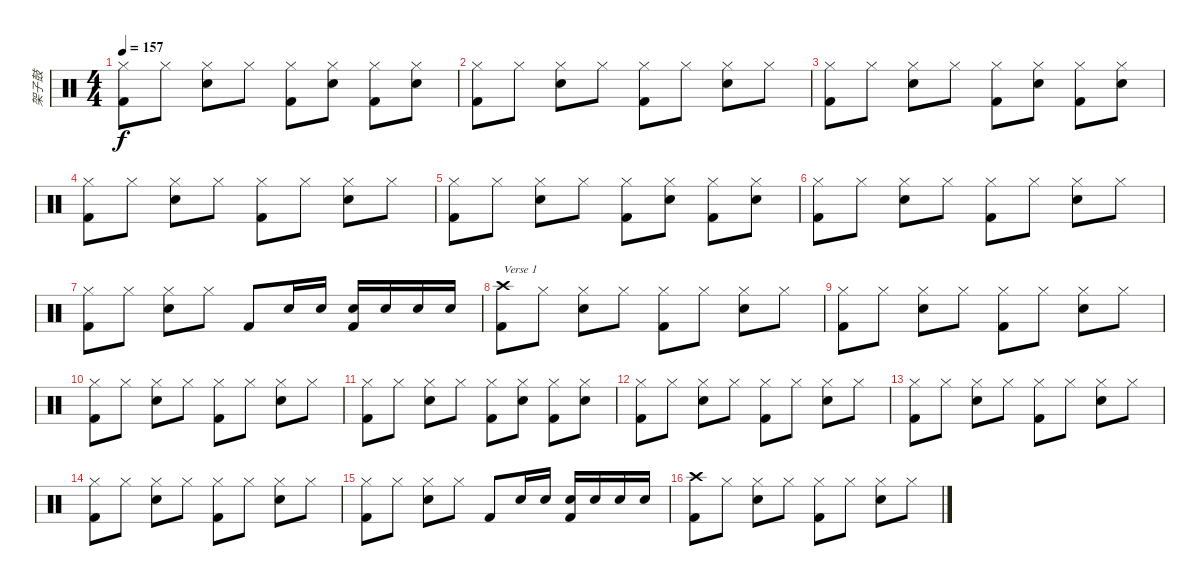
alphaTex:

\track ("架子鼓" "架子鼓") {instrument percussion}
\staff {score}
\articulation defaults
\ts (4 4)
\tempo 157
\clef neutral
\ks c
("Hi-Hat (closed)" "Kick (hit) 2").8{dy f} "Hi-Hat (closed)".8 ("Hi-Hat (closed)" "Snare (hit) 2").8 "Hi-Hat (closed)".8 ("Hi-Hat (closed)" "Kick (hit) 2").8 ("Hi-Hat (closed)" "Snare (hit) 2").8 ("Hi-Hat (closed)" "Kick (hit) 2").8 ("Hi-Hat (closed)" "Snare (hit) 2").8 |
("Hi-Hat (closed)" "Kick (hit) 2").8 "Hi-Hat (closed)".8 ("Hi-Hat (closed)" "Snare (hit) 2").8 "Hi-Hat (closed)".8 ("Hi-Hat (closed)" "Kick (hit) 2").8 "Hi-Hat (closed)".8 ("Hi-Hat (closed)" "Snare (hit) 2").8 "Hi-Hat (closed)".8 |
("Hi-Hat (closed)" "Kick (hit) 2").8 "Hi-Hat (closed)".8 ("Hi-Hat (closed)" "Snare (hit) 2").8 "Hi-Hat (closed)".8 ("Hi-Hat (closed)" "Kick (hit) 2").8 ("Hi-Hat (closed)" "Snare (hit) 2").8 ("Hi-Hat (closed)" "Kick (hit) 2").8 ("Hi-Hat (closed)" "Snare (hit) 2").8 |
("Hi-Hat (closed)" "Kick (hit) 2").8 "Hi-Hat (closed)".8 ("Hi-Hat (closed)" "Snare (hit) 2").8 "Hi-Hat (closed)".8 ("Hi-Hat (closed)" "Kick (hit) 2").8 "Hi-Hat (closed)".8 ("Hi-Hat (closed)" "Snare (hit) 2").8 "Hi-Hat (closed)".8 |
("Hi-Hat (closed)" "Kick (hit) 2").8 "Hi-Hat (closed)".8 ("Hi-Hat (closed)" "Snare (hit) 2").8 "Hi-Hat (closed)".8 ("Hi-Hat (closed)" "Kick (hit) 2").8 ("Hi-Hat (closed)" "Snare (hit) 2").8 ("Hi-Hat (closed)" "Kick (hit) 2").8 ("Hi-Hat (closed)" "Snare (hit) 2").8 |
("Hi-Hat (closed)" "Kick (hit) 2").8 "Hi-Hat (closed)".8 ("Hi-Hat (closed)" "Snare (hit) 2").8 "Hi-Hat (closed)".8 ("Hi-Hat (closed)" "Kick (hit) 2").8 "Hi-Hat (closed)".8 ("Hi-Hat (closed)" "Snare (hit) 2").8 "Hi-Hat (closed)".8 |
("Hi-Hat (closed)" "Kick (hit) 2").8 "Hi-Hat (closed)".8 ("Hi-Hat (closed)" "Snare (hit) 2").8 "Hi-Hat (closed)".8 "Kick (hit) 2".8 "Snare (hit) 2".16 "Snare (hit) 2".16 ("Snare (hit) 2" "Kick (hit) 2").16 "Snare (hit) 2".16 "Snare (hit) 2".16 "Snare (hit) 2".16 |
("Crash high (hit)" "Kick (hit) 2").8{txt "Verse 1"} "Hi-Hat (closed)".8 ("Hi-Hat (closed)" "Snare (hit) 2").8 "Hi-Hat (closed)".8 ("Hi-Hat (closed)" "Kick (hit) 2").8 "Hi-Hat (closed)".8 ("Hi-Hat (closed)" "Snare (hit) 2").8 "Hi-Hat (closed)".8 |
("Hi-Hat (closed)" "Kick (hit) 2").8 "Hi-Hat (closed)".8 ("Hi-Hat (closed)" "Snare (hit) 2").8 "Hi-Hat (closed)".8 ("Hi-Hat (closed)" "Kick (hit) 2").8 "Hi-Hat (closed)".8 ("Hi-Hat (closed)" "Snare (hit) 2").8 "Hi-Hat (closed)".8 |
("Hi-Hat (closed)" "Kick (hit) 2").8 "Hi-Hat (closed)".8 ("Hi-Hat (closed)" "Snare (hit) 2").8 "Hi-Hat (closed)".8 ("Hi-Hat (closed)" "Kick (hit) 2").8 "Hi-Hat (closed)".8 ("Hi-Hat (closed)" "Snare (hit) 2").8 "Hi-Hat (closed)".8 |
("Hi-Hat (closed)" "Kick (hit) 2").8 "Hi-Hat (closed)".8 ("Hi-Hat (closed)" "Snare (hit) 2").8 "Hi-Hat (closed)".8 ("Hi-Hat (closed)" "Kick (hit) 2").8 ("Hi-Hat (closed)" "Snare (hit) 2").8 ("Hi-Hat (closed)" "Kick (hit) 2").8 ("Hi-Hat (closed)" "Snare (hit) 2").8 |
("Hi-Hat (closed)" "Kick (hit) 2").8 "Hi-Hat (closed)".8 ("Hi-Hat (closed)" "Snare (hit) 2").8 "Hi-Hat (closed)".8 ("Hi-Hat (closed)" "Kick (hit) 2").8 "Hi-Hat (closed)".8 ("Hi-Hat (closed)" "Snare (hit) 2").8 "Hi-Hat (closed)".8 |
("Hi-Hat (closed)" "Kick (hit) 2").8 "Hi-Hat (closed)".8 ("Hi-Hat (closed)" "Snare (hit) 2").8 "Hi-Hat (closed)".8 ("Hi-Hat (closed)" "Kick (hit) 2").8 "Hi-Hat (closed)".8 ("Hi-Hat (closed)" "Snare (hit) 2").8 "Hi-Hat (closed)".8 |
("Hi-Hat (closed)" "Kick (hit) 2").8 "Hi-Hat (closed)".8 ("Hi-Hat (closed)" "Snare (hit) 2").8 "Hi-Hat (closed)".8 ("Hi-Hat (closed)" "Kick (hit) 2").8 "Hi-Hat (closed)".8 ("Hi-Hat (closed)" "Snare (hit) 2").8 "Hi-Hat (closed)".8 |
("Hi-Hat (closed)" "Kick (hit) 2").8 "Hi-Hat (closed)".8 ("Hi-Hat (closed)" "Snare (hit) 2").8 "Hi-Hat (closed)".8 "Kick (hit) 2".8 "Snare (hit) 2".16 "Snare (hit) 2".16 ("Snare (hit) 2" "Kick (hit) 2").16 "Snare (hit) 2".16 "Snare (hit) 2".16 "Snare (hit) 2".16 |
("Crash high (hit)" "Kick (hit) 2").8 "Hi-Hat (closed)".8 ("Hi-Hat (closed)" "Snare (hit) 2").8 "Hi-Hat (closed)".8 ("Hi-Hat (closed)" "Kick (hit) 2").8 "Hi-Hat (closed)".8 ("Hi-Hat (closed)" "Snare (hit) 2").8 "Hi-Hat (closed)".8
